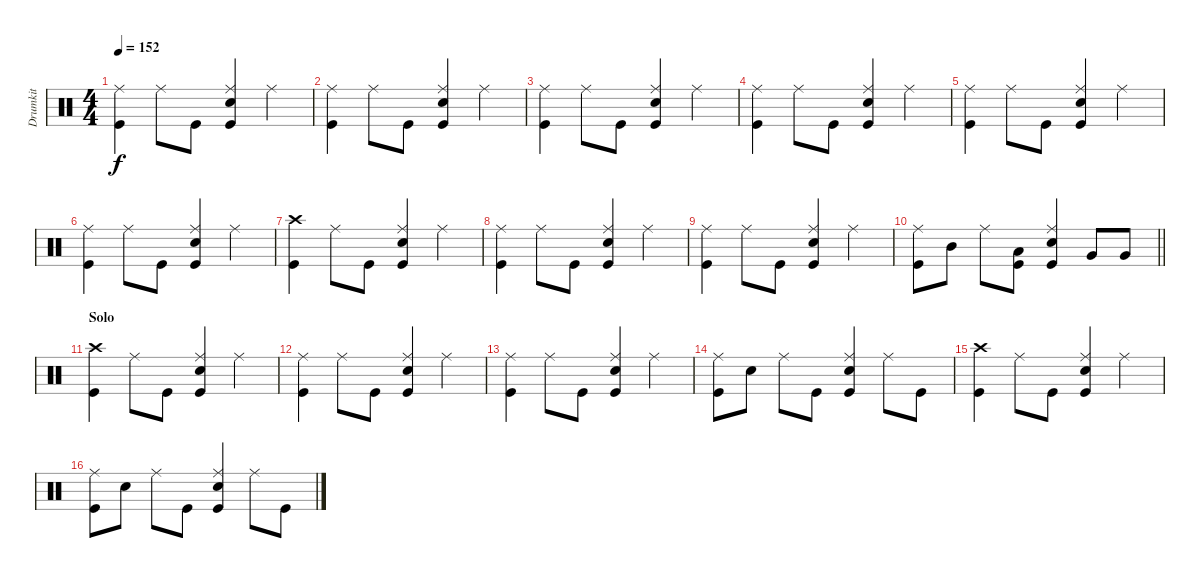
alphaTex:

\track ("Drumkit" "Drumkit") {instrument percussion}
\staff {score}
\articulation defaults
\ts (4 4)
\tempo 152
\clef neutral
\ks c
("Kick (hit)" "Ride (middle)").4{dy f} "Ride (middle)".8 "Kick (hit)".8 ("Snare (hit) 2" "Ride (middle)" "Kick (hit)").4 "Ride (middle)".4 |
("Kick (hit)" "Ride (middle)").4 "Ride (middle)".8 "Kick (hit)".8 ("Snare (hit) 2" "Ride (middle)" "Kick (hit)").4 "Ride (middle)".4 |
("Kick (hit)" "Ride (middle)").4 "Ride (middle)".8 "Kick (hit)".8 ("Snare (hit) 2" "Ride (middle)" "Kick (hit)").4 "Ride (middle)".4 |
("Kick (hit)" "Ride (middle)").4 "Ride (middle)".8 "Kick (hit)".8 ("Snare (hit) 2" "Ride (middle)" "Kick (hit)").4 "Ride (middle)".4 |
("Kick (hit)" "Ride (middle)").4 "Ride (middle)".8 "Kick (hit)".8 ("Snare (hit) 2" "Ride (middle)" "Kick (hit)").4 "Ride (middle)".4 |
("Kick (hit)" "Ride (middle)").4 "Ride (middle)".8 "Kick (hit)".8 ("Snare (hit) 2" "Ride (middle)" "Kick (hit)").4 "Ride (middle)".4 |
("Crash high (hit)" "Kick (hit)").4 "Ride (middle)".8 "Kick (hit)".8 ("Snare (hit) 2" "Ride (middle)" "Kick (hit)").4 "Ride (middle)".4 |
("Kick (hit)" "Ride (middle)").4 "Ride (middle)".8 "Kick (hit)".8 ("Snare (hit) 2" "Ride (middle)" "Kick (hit)").4 "Ride (middle)".4 |
("Kick (hit)" "Ride (middle)").4 "Ride (middle)".8 "Kick (hit)".8 ("Snare (hit) 2" "Ride (middle)" "Kick (hit)").4 "Ride (middle)".4 |
\barLineRight lightlight
("Kick (hit)" "Ride (middle)").8 "Mid Tom (hit)".8 "Ride (middle)".8 ("Kick (hit)" "Low Tom (hit)").8 ("Snare (hit) 2" "Ride (middle)" "Kick (hit)").4 "Very Low Tom (hit)".8 "Very Low Tom (hit)".8 |
\section ("" "Solo")
("Crash high (hit)" "Kick (hit)").4 "Ride (middle)".8 "Kick (hit)".8 ("Snare (hit) 2" "Ride (middle)" "Kick (hit)").4 "Ride (middle)".4 |
("Kick (hit)" "Ride (middle)").4 "Ride (middle)".8 "Kick (hit)".8 ("Snare (hit) 2" "Ride (middle)" "Kick (hit)").4 "Ride (middle)".4 |
("Kick (hit)" "Ride (middle)").4 "Ride (middle)".8 "Kick (hit)".8 ("Snare (hit) 2" "Ride (middle)" "Kick (hit)").4 "Ride (middle)".4 |
("Kick (hit)" "Ride (middle)").8 "Snare (hit) 2".8 "Ride (middle)".8 "Kick (hit)".8 ("Snare (hit) 2" "Ride (middle)" "Kick (hit)").4 "Ride (middle)".8 "Kick (hit)".8 |
("Kick (hit)" "Crash high (hit)").4 "Ride (middle)".8 "Kick (hit)".8 ("Snare (hit) 2" "Ride (middle)" "Kick (hit)").4 "Ride (middle)".4 |
("Kick (hit)" "Ride (middle)").8 "Snare (hit) 2".8 "Ride (middle)".8 "Kick (hit)".8 ("Snare (hit) 2" "Ride (middle)" "Kick (hit)").4 "Ride (middle)".8 "Kick (hit)".8
